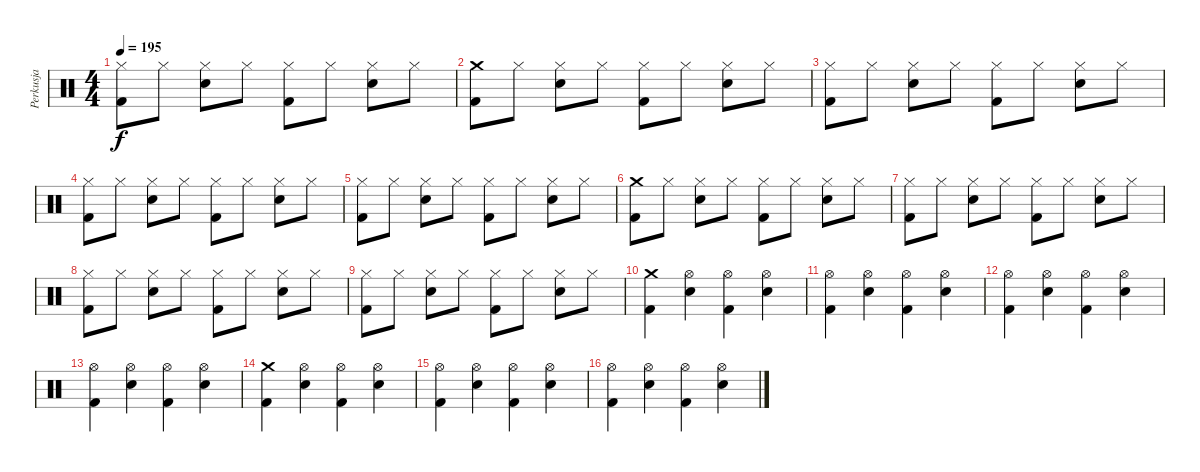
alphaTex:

\track ("Perkusja" "Perkusja") {instrument percussion}
\staff {score}
\articulation defaults
\ts (4 4)
\tempo 195
\clef neutral
\ks c
("Hi-Hat (closed)" "Kick (hit) 2").8{dy f} "Hi-Hat (closed)".8 ("Hi-Hat (closed)" "Snare (hit) 2").8 "Hi-Hat (closed)".8 ("Hi-Hat (closed)" "Kick (hit) 2").8 "Hi-Hat (closed)".8 ("Hi-Hat (closed)" "Snare (hit) 2").8 "Hi-Hat (closed)".8 |
("Crash medium (hit)" "Kick (hit) 2").8 "Hi-Hat (closed)".8 ("Hi-Hat (closed)" "Snare (hit) 2").8 "Hi-Hat (closed)".8 ("Hi-Hat (closed)" "Kick (hit) 2").8 "Hi-Hat (closed)".8 ("Hi-Hat (closed)" "Snare (hit) 2").8 "Hi-Hat (closed)".8 |
("Hi-Hat (closed)" "Kick (hit) 2").8 "Hi-Hat (closed)".8 ("Hi-Hat (closed)" "Snare (hit) 2").8 "Hi-Hat (closed)".8 ("Hi-Hat (closed)" "Kick (hit) 2").8 "Hi-Hat (closed)".8 ("Hi-Hat (closed)" "Snare (hit) 2").8 "Hi-Hat (closed)".8 |
("Hi-Hat (closed)" "Kick (hit) 2").8 "Hi-Hat (closed)".8 ("Hi-Hat (closed)" "Snare (hit) 2").8 "Hi-Hat (closed)".8 ("Hi-Hat (closed)" "Kick (hit) 2").8 "Hi-Hat (closed)".8 ("Hi-Hat (closed)" "Snare (hit) 2").8 "Hi-Hat (closed)".8 |
("Hi-Hat (closed)" "Kick (hit) 2").8 "Hi-Hat (closed)".8 ("Hi-Hat (closed)" "Snare (hit) 2").8 "Hi-Hat (closed)".8 ("Hi-Hat (closed)" "Kick (hit) 2").8 "Hi-Hat (closed)".8 ("Hi-Hat (closed)" "Snare (hit) 2").8 "Hi-Hat (closed)".8 |
("Crash medium (hit)" "Kick (hit) 2").8 "Hi-Hat (closed)".8 ("Hi-Hat (closed)" "Snare (hit) 2").8 "Hi-Hat (closed)".8 ("Hi-Hat (closed)" "Kick (hit) 2").8 "Hi-Hat (closed)".8 ("Hi-Hat (closed)" "Snare (hit) 2").8 "Hi-Hat (closed)".8 |
("Hi-Hat (closed)" "Kick (hit) 2").8 "Hi-Hat (closed)".8 ("Hi-Hat (closed)" "Snare (hit) 2").8 "Hi-Hat (closed)".8 ("Hi-Hat (closed)" "Kick (hit) 2").8 "Hi-Hat (closed)".8 ("Hi-Hat (closed)" "Snare (hit) 2").8 "Hi-Hat (closed)".8 |
("Hi-Hat (closed)" "Kick (hit) 2").8 "Hi-Hat (closed)".8 ("Hi-Hat (closed)" "Snare (hit) 2").8 "Hi-Hat (closed)".8 ("Hi-Hat (closed)" "Kick (hit) 2").8 "Hi-Hat (closed)".8 ("Hi-Hat (closed)" "Snare (hit) 2").8 "Hi-Hat (closed)".8 |
("Hi-Hat (closed)" "Kick (hit) 2").8 "Hi-Hat (closed)".8 ("Hi-Hat (closed)" "Snare (hit) 2").8 "Hi-Hat (closed)".8 ("Hi-Hat (closed)" "Kick (hit) 2").8 "Hi-Hat (closed)".8 ("Hi-Hat (closed)" "Snare (hit) 2").8 "Hi-Hat (closed)".8 |
("Crash medium (hit)" "Kick (hit) 2").4 ("Hi-Hat (open)" "Snare (hit) 2").4 ("Hi-Hat (open)" "Kick (hit) 2").4 ("Hi-Hat (open)" "Snare (hit) 2").4 |
("Hi-Hat (open)" "Kick (hit) 2").4 ("Hi-Hat (open)" "Snare (hit) 2").4 ("Hi-Hat (open)" "Kick (hit) 2").4 ("Hi-Hat (open)" "Snare (hit) 2").4 |
("Hi-Hat (open)" "Kick (hit) 2").4 ("Hi-Hat (open)" "Snare (hit) 2").4 ("Hi-Hat (open)" "Kick (hit) 2").4 ("Hi-Hat (open)" "Snare (hit) 2").4 |
("Hi-Hat (open)" "Kick (hit) 2").4 ("Hi-Hat (open)" "Snare (hit) 2").4 ("Hi-Hat (open)" "Kick (hit) 2").4 ("Hi-Hat (open)" "Snare (hit) 2").4 |
("Crash medium (hit)" "Kick (hit) 2").4 ("Hi-Hat (open)" "Snare (hit) 2").4 ("Hi-Hat (open)" "Kick (hit) 2").4 ("Hi-Hat (open)" "Snare (hit) 2").4 |
("Hi-Hat (open)" "Kick (hit) 2").4 ("Hi-Hat (open)" "Snare (hit) 2").4 ("Hi-Hat (open)" "Kick (hit) 2").4 ("Hi-Hat (open)" "Snare (hit) 2").4 |
("Hi-Hat (open)" "Kick (hit) 2").4 ("Hi-Hat (open)" "Snare (hit) 2").4 ("Hi-Hat (open)" "Kick (hit) 2").4 ("Hi-Hat (open)" "Snare (hit) 2").4
